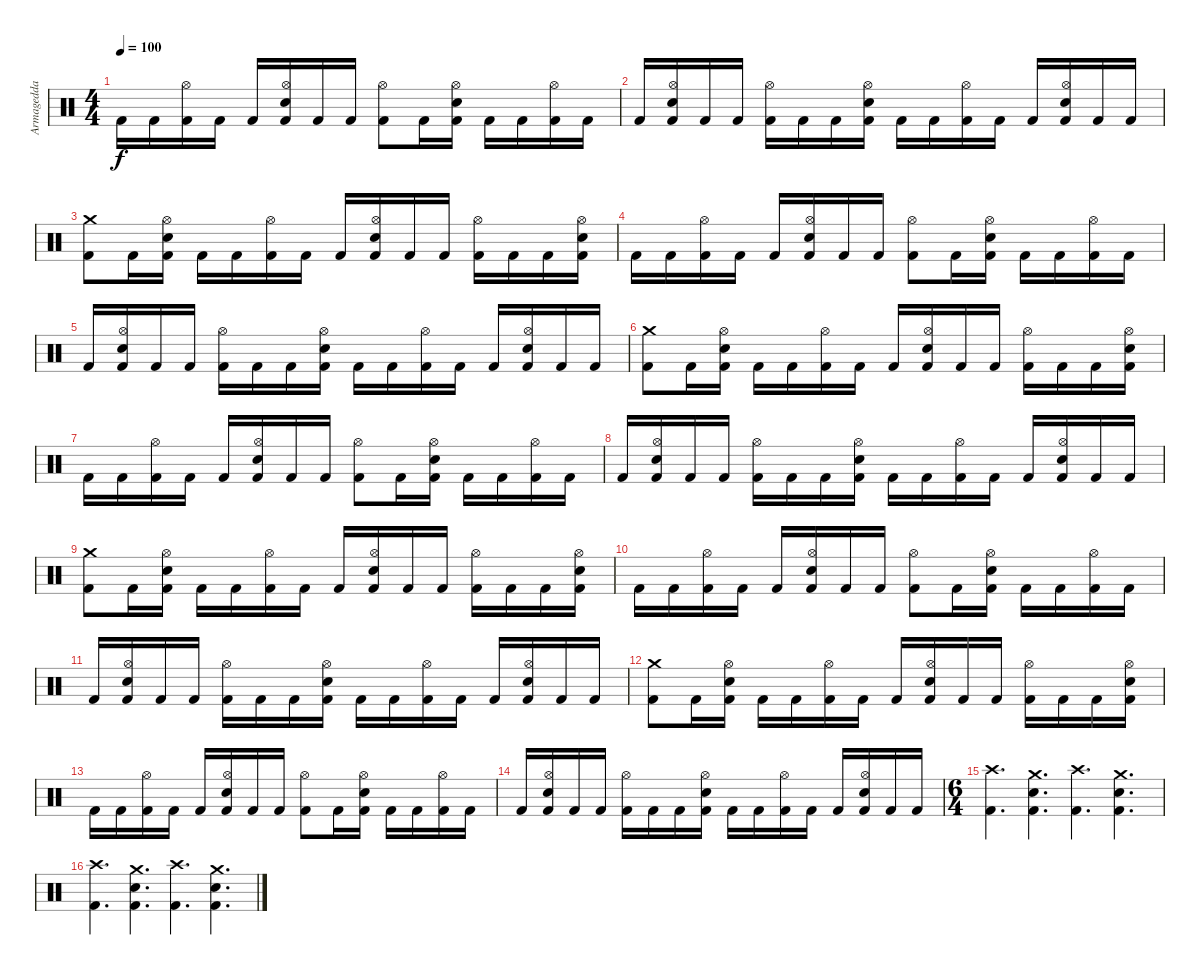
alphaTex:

\track ("Armagedda" "Armagedda") {instrument percussion}
\staff {score}
\articulation defaults
\ts (4 4)
\tempo 100
\clef neutral
\ks c "Kick (hit) 2".16{dy f} "Kick (hit) 2".16
("Hi-Hat (open)" "Kick (hit) 2").16 "Kick (hit) 2".16 "Kick (hit) 2".16 ("Hi-Hat (open)" "Snare (hit) 2" "Kick (hit) 2").16 "Kick (hit) 2".16 "Kick (hit) 2".16 ("Hi-Hat (open)" "Kick (hit) 2").8 "Kick (hit) 2".16 ("Hi-Hat (open)" "Snare (hit) 2" "Kick (hit) 2").16 "Kick (hit) 2".16 "Kick (hit) 2".16 ("Hi-Hat (open)" "Kick (hit) 2").16 "Kick (hit) 2".16 |
"Kick (hit) 2".16 ("Hi-Hat (open)" "Snare (hit) 2" "Kick (hit) 2").16 "Kick (hit) 2".16 "Kick (hit) 2".16 ("Hi-Hat (open)" "Kick (hit) 2").16 "Kick (hit) 2".16 "Kick (hit) 2".16 ("Hi-Hat (open)" "Snare (hit) 2" "Kick (hit) 2").16 "Kick (hit) 2".16 "Kick (hit) 2".16 ("Hi-Hat (open)" "Kick (hit) 2").16 "Kick (hit) 2".16 "Kick (hit) 2".16 ("Hi-Hat (open)" "Snare (hit) 2" "Kick (hit) 2").16 "Kick (hit) 2".16 "Kick (hit) 2".16 |
("Crash medium (hit)" "Kick (hit) 2").8 "Kick (hit) 2".16 ("Hi-Hat (open)" "Snare (hit) 2" "Kick (hit) 2").16 "Kick (hit) 2".16 "Kick (hit) 2".16 ("Hi-Hat (open)" "Kick (hit) 2").16 "Kick (hit) 2".16 "Kick (hit) 2".16 ("Hi-Hat (open)" "Snare (hit) 2" "Kick (hit) 2").16 "Kick (hit) 2".16 "Kick (hit) 2".16 ("Hi-Hat (open)" "Kick (hit) 2").16 "Kick (hit) 2".16 "Kick (hit) 2".16 ("Hi-Hat (open)" "Snare (hit) 2" "Kick (hit) 2").16 |
"Kick (hit) 2".16 "Kick (hit) 2".16 ("Hi-Hat (open)" "Kick (hit) 2").16 "Kick (hit) 2".16 "Kick (hit) 2".16 ("Hi-Hat (open)" "Snare (hit) 2" "Kick (hit) 2").16 "Kick (hit) 2".16 "Kick (hit) 2".16 ("Hi-Hat (open)" "Kick (hit) 2").8 "Kick (hit) 2".16 ("Hi-Hat (open)" "Snare (hit) 2" "Kick (hit) 2").16 "Kick (hit) 2".16 "Kick (hit) 2".16 ("Hi-Hat (open)" "Kick (hit) 2").16 "Kick (hit) 2".16 |
"Kick (hit) 2".16 ("Hi-Hat (open)" "Snare (hit) 2" "Kick (hit) 2").16 "Kick (hit) 2".16 "Kick (hit) 2".16 ("Hi-Hat (open)" "Kick (hit) 2").16 "Kick (hit) 2".16 "Kick (hit) 2".16 ("Hi-Hat (open)" "Snare (hit) 2" "Kick (hit) 2").16 "Kick (hit) 2".16 "Kick (hit) 2".16 ("Hi-Hat (open)" "Kick (hit) 2").16 "Kick (hit) 2".16 "Kick (hit) 2".16 ("Hi-Hat (open)" "Snare (hit) 2" "Kick (hit) 2").16 "Kick (hit) 2".16 "Kick (hit) 2".16 |
("Crash medium (hit)" "Kick (hit) 2").8 "Kick (hit) 2".16 ("Hi-Hat (open)" "Snare (hit) 2" "Kick (hit) 2").16 "Kick (hit) 2".16 "Kick (hit) 2".16 ("Hi-Hat (open)" "Kick (hit) 2").16 "Kick (hit) 2".16 "Kick (hit) 2".16 ("Hi-Hat (open)" "Snare (hit) 2" "Kick (hit) 2").16 "Kick (hit) 2".16 "Kick (hit) 2".16 ("Hi-Hat (open)" "Kick (hit) 2").16 "Kick (hit) 2".16 "Kick (hit) 2".16 ("Hi-Hat (open)" "Snare (hit) 2" "Kick (hit) 2").16 |
"Kick (hit) 2".16 "Kick (hit) 2".16 ("Hi-Hat (open)" "Kick (hit) 2").16 "Kick (hit) 2".16 "Kick (hit) 2".16 ("Hi-Hat (open)" "Snare (hit) 2" "Kick (hit) 2").16 "Kick (hit) 2".16 "Kick (hit) 2".16 ("Hi-Hat (open)" "Kick (hit) 2").8 "Kick (hit) 2".16 ("Hi-Hat (open)" "Snare (hit) 2" "Kick (hit) 2").16 "Kick (hit) 2".16 "Kick (hit) 2".16 ("Hi-Hat (open)" "Kick (hit) 2").16 "Kick (hit) 2".16 |
"Kick (hit) 2".16 ("Hi-Hat (open)" "Snare (hit) 2" "Kick (hit) 2").16 "Kick (hit) 2".16 "Kick (hit) 2".16 ("Hi-Hat (open)" "Kick (hit) 2").16 "Kick (hit) 2".16 "Kick (hit) 2".16 ("Hi-Hat (open)" "Snare (hit) 2" "Kick (hit) 2").16 "Kick (hit) 2".16 "Kick (hit) 2".16 ("Hi-Hat (open)" "Kick (hit) 2").16 "Kick (hit) 2".16 "Kick (hit) 2".16 ("Hi-Hat (open)" "Snare (hit) 2" "Kick (hit) 2").16 "Kick (hit) 2".16 "Kick (hit) 2".16 |
("Crash medium (hit)" "Kick (hit) 2").8 "Kick (hit) 2".16 ("Hi-Hat (open)" "Snare (hit) 2" "Kick (hit) 2").16 "Kick (hit) 2".16 "Kick (hit) 2".16 ("Hi-Hat (open)" "Kick (hit) 2").16 "Kick (hit) 2".16 "Kick (hit) 2".16 ("Hi-Hat (open)" "Snare (hit) 2" "Kick (hit) 2").16 "Kick (hit) 2".16 "Kick (hit) 2".16 ("Hi-Hat (open)" "Kick (hit) 2").16 "Kick (hit) 2".16 "Kick (hit) 2".16 ("Hi-Hat (open)" "Snare (hit) 2" "Kick (hit) 2").16 |
"Kick (hit) 2".16 "Kick (hit) 2".16 ("Hi-Hat (open)" "Kick (hit) 2").16 "Kick (hit) 2".16 "Kick (hit) 2".16 ("Hi-Hat (open)" "Snare (hit) 2" "Kick (hit) 2").16 "Kick (hit) 2".16 "Kick (hit) 2".16 ("Hi-Hat (open)" "Kick (hit) 2").8 "Kick (hit) 2".16 ("Hi-Hat (open)" "Snare (hit) 2" "Kick (hit) 2").16 "Kick (hit) 2".16 "Kick (hit) 2".16 ("Hi-Hat (open)" "Kick (hit) 2").16 "Kick (hit) 2".16 |
"Kick (hit) 2".16 ("Hi-Hat (open)" "Snare (hit) 2" "Kick (hit) 2").16 "Kick (hit) 2".16 "Kick (hit) 2".16 ("Hi-Hat (open)" "Kick (hit) 2").16 "Kick (hit) 2".16 "Kick (hit) 2".16 ("Hi-Hat (open)" "Snare (hit) 2" "Kick (hit) 2").16 "Kick (hit) 2".16 "Kick (hit) 2".16 ("Hi-Hat (open)" "Kick (hit) 2").16 "Kick (hit) 2".16 "Kick (hit) 2".16 ("Hi-Hat (open)" "Snare (hit) 2" "Kick (hit) 2").16 "Kick (hit) 2".16 "Kick (hit) 2".16 |
("Crash medium (hit)" "Kick (hit) 2").8 "Kick (hit) 2".16 ("Hi-Hat (open)" "Snare (hit) 2" "Kick (hit) 2").16 "Kick (hit) 2".16 "Kick (hit) 2".16 ("Hi-Hat (open)" "Kick (hit) 2").16 "Kick (hit) 2".16 "Kick (hit) 2".16 ("Hi-Hat (open)" "Snare (hit) 2" "Kick (hit) 2").16 "Kick (hit) 2".16 "Kick (hit) 2".16 ("Hi-Hat (open)" "Kick (hit) 2").16 "Kick (hit) 2".16 "Kick (hit) 2".16 ("Hi-Hat (open)" "Snare (hit) 2" "Kick (hit) 2").16 |
"Kick (hit) 2".16 "Kick (hit) 2".16 ("Hi-Hat (open)" "Kick (hit) 2").16 "Kick (hit) 2".16 "Kick (hit) 2".16 ("Hi-Hat (open)" "Snare (hit) 2" "Kick (hit) 2").16 "Kick (hit) 2".16 "Kick (hit) 2".16 ("Hi-Hat (open)" "Kick (hit) 2").8 "Kick (hit) 2".16 ("Hi-Hat (open)" "Snare (hit) 2" "Kick (hit) 2").16 "Kick (hit) 2".16 "Kick (hit) 2".16 ("Hi-Hat (open)" "Kick (hit) 2").16 "Kick (hit) 2".16 |
"Kick (hit) 2".16 ("Hi-Hat (open)" "Snare (hit) 2" "Kick (hit) 2").16 "Kick (hit) 2".16 "Kick (hit) 2".16 ("Hi-Hat (open)" "Kick (hit) 2").16 "Kick (hit) 2".16 "Kick (hit) 2".16 ("Hi-Hat (open)" "Snare (hit) 2" "Kick (hit) 2").16 "Kick (hit) 2".16 "Kick (hit) 2".16 ("Hi-Hat (open)" "Kick (hit) 2").16 "Kick (hit) 2".16 "Kick (hit) 2".16 ("Hi-Hat (open)" "Snare (hit) 2" "Kick (hit) 2").16 "Kick (hit) 2".16 "Kick (hit) 2".16 |
\ts (6 4)
("Crash high (hit)" "Kick (hit) 2").4{d} ("Crash medium (hit)" "Snare (hit) 2" "Kick (hit) 2").4{d} ("Crash high (hit)" "Kick (hit) 2").4{d} ("Crash medium (hit)" "Snare (hit) 2" "Kick (hit) 2").4{d} |
("Crash high (hit)" "Kick (hit) 2").4{d} ("Crash medium (hit)" "Snare (hit) 2" "Kick (hit) 2").4{d} ("Crash high (hit)" "Kick (hit) 2").4{d} ("Crash medium (hit)" "Snare (hit) 2" "Kick (hit) 2").4{d}
